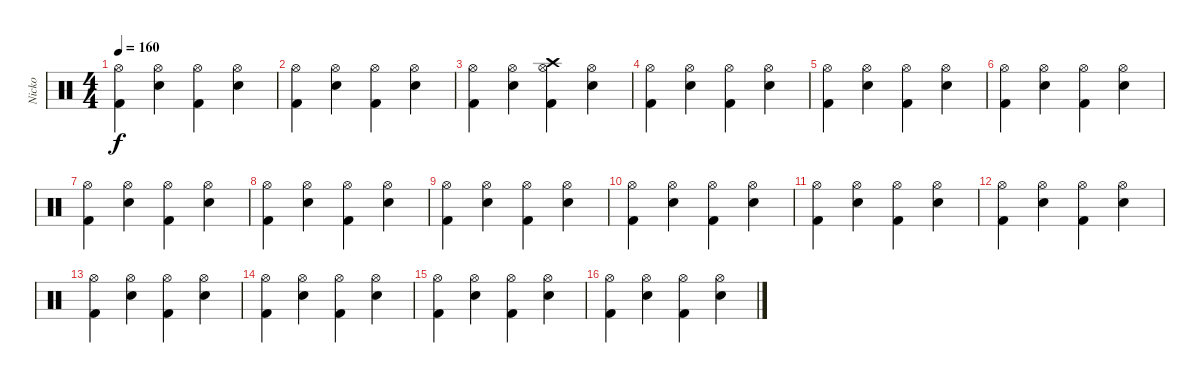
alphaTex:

\track ("Nicko" "Nicko") {instrument percussion}
\staff {score}
\articulation defaults
\ts (4 4)
\tempo 160
\clef neutral
\ks c
("Kick (hit) 2" "Hi-Hat (open)").4{dy f} ("Snare (hit) 2" "Hi-Hat (open)").4 ("Kick (hit) 2" "Hi-Hat (open)").4 ("Snare (hit) 2" "Hi-Hat (open)").4 |
("Kick (hit) 2" "Hi-Hat (open)").4 ("Snare (hit) 2" "Hi-Hat (open)").4 ("Kick (hit) 2" "Hi-Hat (open)").4 ("Snare (hit) 2" "Hi-Hat (open)").4 |
("Kick (hit) 2" "Hi-Hat (open)").4 ("Snare (hit) 2" "Hi-Hat (open)").4 ("Kick (hit) 2" "Hi-Hat (open)" "Crash high (hit)").4 ("Snare (hit) 2" "Hi-Hat (open)").4 |
("Kick (hit) 2" "Hi-Hat (open)").4 ("Snare (hit) 2" "Hi-Hat (open)").4 ("Kick (hit) 2" "Hi-Hat (open)").4 ("Snare (hit) 2" "Hi-Hat (open)").4 |
("Kick (hit) 2" "Hi-Hat (open)").4 ("Snare (hit) 2" "Hi-Hat (open)").4 ("Kick (hit) 2" "Hi-Hat (open)").4 ("Snare (hit) 2" "Hi-Hat (open)").4 |
("Kick (hit) 2" "Hi-Hat (open)").4 ("Snare (hit) 2" "Hi-Hat (open)").4 ("Kick (hit) 2" "Hi-Hat (open)").4 ("Snare (hit) 2" "Hi-Hat (open)").4 |
("Kick (hit) 2" "Hi-Hat (open)").4 ("Snare (hit) 2" "Hi-Hat (open)").4 ("Kick (hit) 2" "Hi-Hat (open)").4 ("Snare (hit) 2" "Hi-Hat (open)").4 |
("Kick (hit) 2" "Hi-Hat (open)").4 ("Snare (hit) 2" "Hi-Hat (open)").4 ("Kick (hit) 2" "Hi-Hat (open)").4 ("Snare (hit) 2" "Hi-Hat (open)").4 |
("Kick (hit) 2" "Hi-Hat (open)").4 ("Snare (hit) 2" "Hi-Hat (open)").4 ("Kick (hit) 2" "Hi-Hat (open)").4 ("Snare (hit) 2" "Hi-Hat (open)").4 |
("Kick (hit) 2" "Hi-Hat (open)").4 ("Snare (hit) 2" "Hi-Hat (open)").4 ("Kick (hit) 2" "Hi-Hat (open)").4 ("Snare (hit) 2" "Hi-Hat (open)").4 |
("Kick (hit) 2" "Hi-Hat (open)").4 ("Snare (hit) 2" "Hi-Hat (open)").4 ("Kick (hit) 2" "Hi-Hat (open)").4 ("Snare (hit) 2" "Hi-Hat (open)").4 |
("Kick (hit) 2" "Hi-Hat (open)").4 ("Snare (hit) 2" "Hi-Hat (open)").4 ("Kick (hit) 2" "Hi-Hat (open)").4 ("Snare (hit) 2" "Hi-Hat (open)").4 |
("Kick (hit) 2" "Hi-Hat (open)").4 ("Snare (hit) 2" "Hi-Hat (open)").4 ("Kick (hit) 2" "Hi-Hat (open)").4 ("Snare (hit) 2" "Hi-Hat (open)").4 |
("Kick (hit) 2" "Hi-Hat (open)").4 ("Snare (hit) 2" "Hi-Hat (open)").4 ("Kick (hit) 2" "Hi-Hat (open)").4 ("Snare (hit) 2" "Hi-Hat (open)").4 |
("Kick (hit) 2" "Hi-Hat (open)").4 ("Snare (hit) 2" "Hi-Hat (open)").4 ("Kick (hit) 2" "Hi-Hat (open)").4 ("Snare (hit) 2" "Hi-Hat (open)").4 |
("Kick (hit) 2" "Hi-Hat (open)").4 ("Snare (hit) 2" "Hi-Hat (open)").4 ("Kick (hit) 2" "Hi-Hat (open)").4 ("Snare (hit) 2" "Hi-Hat (open)").4
